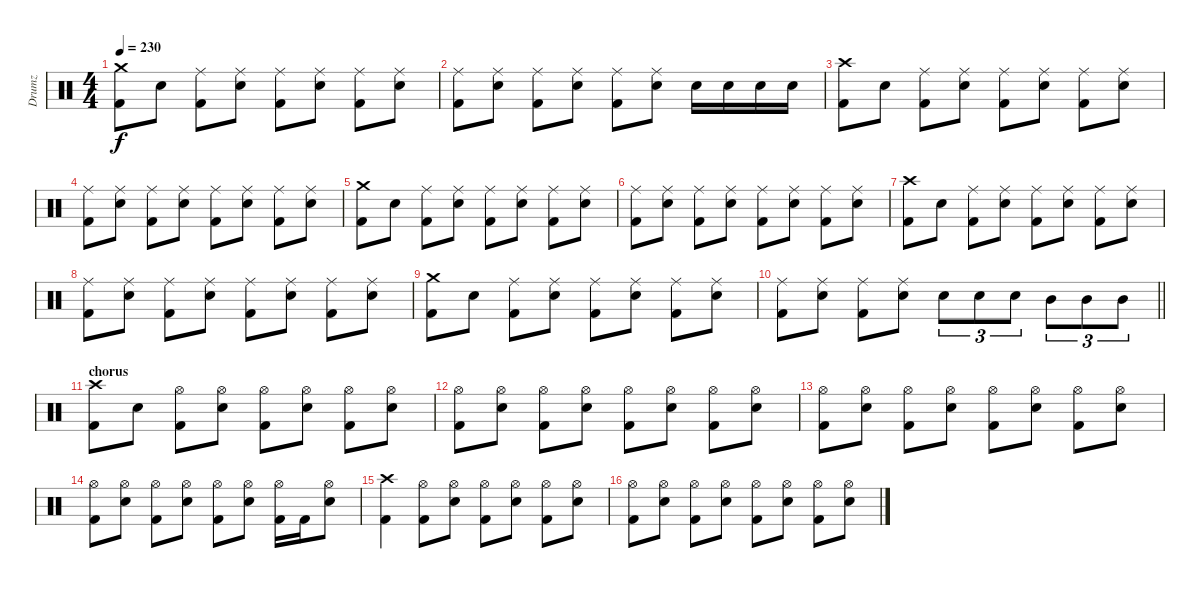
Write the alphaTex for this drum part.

\track ("Drumz" "Drumz") {instrument percussion}
\staff {score}
\articulation defaults
\ts (4 4)
\tempo 230
\clef neutral
\ks c
("Crash medium (hit)" "Kick (hit) 2").8{dy f} "Electric Snare (hit)".8 ("Ride (middle)" "Kick (hit) 2").8 ("Ride (middle)" "Electric Snare (hit)").8 ("Ride (middle)" "Kick (hit) 2").8 ("Ride (middle)" "Electric Snare (hit)").8 ("Ride (middle)" "Kick (hit) 2").8 ("Ride (middle)" "Electric Snare (hit)").8 |
("Ride (middle)" "Kick (hit) 2").8 ("Ride (middle)" "Electric Snare (hit)").8 ("Ride (middle)" "Kick (hit) 2").8 ("Ride (middle)" "Electric Snare (hit)").8 ("Ride (middle)" "Kick (hit) 2").8 ("Ride (middle)" "Electric Snare (hit)").8 "Electric Snare (hit)".16 "Electric Snare (hit)".16 "Electric Snare (hit)".16 "Electric Snare (hit)".16 |
("Crash high (hit)" "Kick (hit) 2").8 "Electric Snare (hit)".8 ("Ride (middle)" "Kick (hit) 2").8 ("Ride (middle)" "Electric Snare (hit)").8 ("Ride (middle)" "Kick (hit) 2").8 ("Ride (middle)" "Electric Snare (hit)").8 ("Ride (middle)" "Kick (hit) 2").8 ("Ride (middle)" "Electric Snare (hit)").8 |
("Ride (middle)" "Kick (hit) 2").8 ("Ride (middle)" "Electric Snare (hit)").8 ("Ride (middle)" "Kick (hit) 2").8 ("Ride (middle)" "Electric Snare (hit)").8 ("Ride (middle)" "Kick (hit) 2").8 ("Ride (middle)" "Electric Snare (hit)").8 ("Ride (middle)" "Kick (hit) 2").8 ("Ride (middle)" "Electric Snare (hit)").8 |
("Crash medium (hit)" "Kick (hit) 2").8 "Electric Snare (hit)".8 ("Ride (middle)" "Kick (hit) 2").8 ("Ride (middle)" "Electric Snare (hit)").8 ("Ride (middle)" "Kick (hit) 2").8 ("Ride (middle)" "Electric Snare (hit)").8 ("Ride (middle)" "Kick (hit) 2").8 ("Ride (middle)" "Electric Snare (hit)").8 |
("Ride (middle)" "Kick (hit) 2").8 ("Ride (middle)" "Electric Snare (hit)").8 ("Ride (middle)" "Kick (hit) 2").8 ("Ride (middle)" "Electric Snare (hit)").8 ("Ride (middle)" "Kick (hit) 2").8 ("Ride (middle)" "Electric Snare (hit)").8 ("Ride (middle)" "Kick (hit) 2").8 ("Ride (middle)" "Electric Snare (hit)").8 |
("Crash high (hit)" "Kick (hit) 2").8 "Electric Snare (hit)".8 ("Ride (middle)" "Kick (hit) 2").8 ("Ride (middle)" "Electric Snare (hit)").8 ("Ride (middle)" "Kick (hit) 2").8 ("Ride (middle)" "Electric Snare (hit)").8 ("Ride (middle)" "Kick (hit) 2").8 ("Ride (middle)" "Electric Snare (hit)").8 |
("Ride (middle)" "Kick (hit) 2").8 ("Ride (middle)" "Electric Snare (hit)").8 ("Ride (middle)" "Kick (hit) 2").8 ("Ride (middle)" "Electric Snare (hit)").8 ("Ride (middle)" "Kick (hit) 2").8 ("Ride (middle)" "Electric Snare (hit)").8 ("Ride (middle)" "Kick (hit) 2").8 ("Ride (middle)" "Electric Snare (hit)").8 |
("Crash medium (hit)" "Kick (hit) 2").8 "Electric Snare (hit)".8 ("Ride (middle)" "Kick (hit) 2").8 ("Ride (middle)" "Electric Snare (hit)").8 ("Ride (middle)" "Kick (hit) 2").8 ("Ride (middle)" "Electric Snare (hit)").8 ("Ride (middle)" "Kick (hit) 2").8 ("Ride (middle)" "Electric Snare (hit)").8 |
\barLineRight lightlight
("Ride (middle)" "Kick (hit) 2").8 ("Ride (middle)" "Electric Snare (hit)").8 ("Ride (middle)" "Kick (hit) 2").8 ("Ride (middle)" "Electric Snare (hit)").8 "Electric Snare (hit)".8{tu (3 2)} "Electric Snare (hit)".8{tu (3 2)} "Electric Snare (hit)".8{tu (3 2)} "Mid Tom (hit)".8{tu (3 2)} "Mid Tom (hit)".8{tu (3 2)} "Mid Tom (hit)".8{tu (3 2)} |
\section ("" "chorus")
("Crash high (hit)" "Kick (hit) 2").8 "Electric Snare (hit)".8 ("Hi-Hat (open)" "Kick (hit) 2").8 ("Hi-Hat (open)" "Electric Snare (hit)").8 ("Hi-Hat (open)" "Kick (hit) 2").8 ("Hi-Hat (open)" "Electric Snare (hit)").8 ("Hi-Hat (open)" "Kick (hit) 2").8 ("Hi-Hat (open)" "Electric Snare (hit)").8 |
("Hi-Hat (open)" "Kick (hit) 2").8 ("Hi-Hat (open)" "Electric Snare (hit)").8 ("Hi-Hat (open)" "Kick (hit) 2").8 ("Hi-Hat (open)" "Electric Snare (hit)").8 ("Hi-Hat (open)" "Kick (hit) 2").8 ("Hi-Hat (open)" "Electric Snare (hit)").8 ("Hi-Hat (open)" "Kick (hit) 2").8 ("Hi-Hat (open)" "Electric Snare (hit)").8 |
("Hi-Hat (open)" "Kick (hit) 2").8 ("Hi-Hat (open)" "Electric Snare (hit)").8 ("Hi-Hat (open)" "Kick (hit) 2").8 ("Hi-Hat (open)" "Electric Snare (hit)").8 ("Hi-Hat (open)" "Kick (hit) 2").8 ("Hi-Hat (open)" "Electric Snare (hit)").8 ("Hi-Hat (open)" "Kick (hit) 2").8 ("Hi-Hat (open)" "Electric Snare (hit)").8 |
("Hi-Hat (open)" "Kick (hit) 2").8 ("Hi-Hat (open)" "Electric Snare (hit)").8 ("Hi-Hat (open)" "Kick (hit) 2").8 ("Hi-Hat (open)" "Electric Snare (hit)").8 ("Hi-Hat (open)" "Kick (hit) 2").8 ("Hi-Hat (open)" "Electric Snare (hit)").8 ("Hi-Hat (open)" "Kick (hit) 2").16 "Kick (hit) 2".16 ("Hi-Hat (open)" "Electric Snare (hit)").8 |
("Crash high (hit)" "Kick (hit) 2").4 ("Hi-Hat (open)" "Kick (hit) 2").8 ("Hi-Hat (open)" "Electric Snare (hit)").8 ("Hi-Hat (open)" "Kick (hit) 2").8 ("Hi-Hat (open)" "Electric Snare (hit)").8 ("Hi-Hat (open)" "Kick (hit) 2").8 ("Hi-Hat (open)" "Electric Snare (hit)").8 |
("Hi-Hat (open)" "Kick (hit) 2").8 ("Hi-Hat (open)" "Electric Snare (hit)").8 ("Hi-Hat (open)" "Kick (hit) 2").8 ("Hi-Hat (open)" "Electric Snare (hit)").8 ("Hi-Hat (open)" "Kick (hit) 2").8 ("Hi-Hat (open)" "Electric Snare (hit)").8 ("Hi-Hat (open)" "Kick (hit) 2").8 ("Hi-Hat (open)" "Electric Snare (hit)").8
